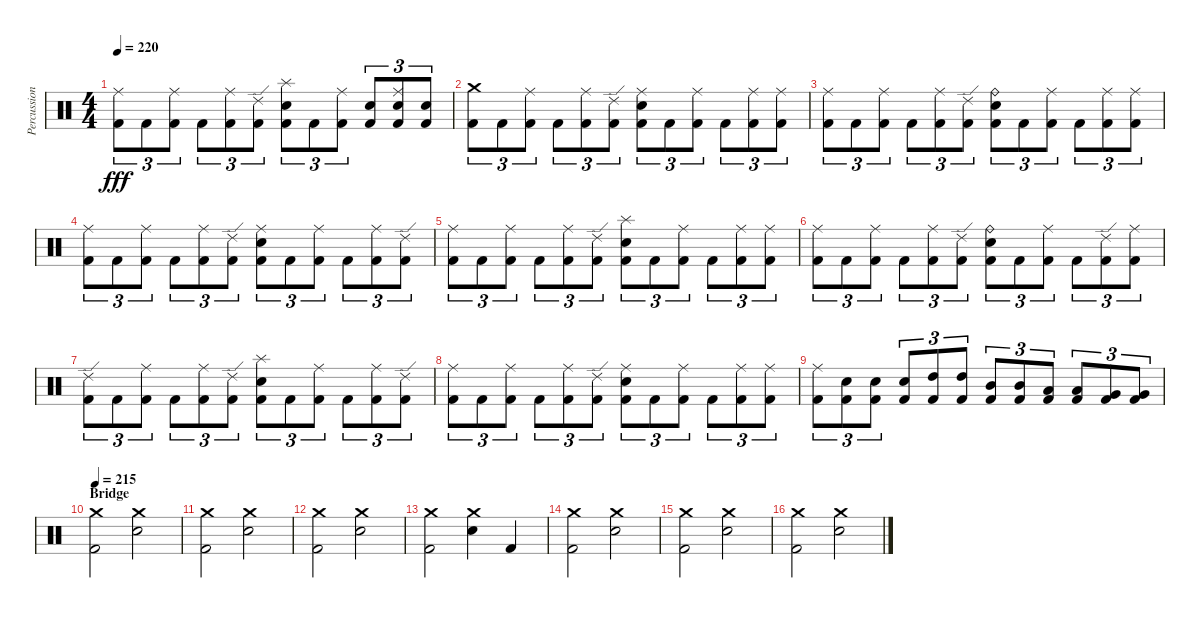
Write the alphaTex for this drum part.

\track ("Percussion" "Percussion") {instrument percussion}
\staff {score}
\articulation defaults
\ts (4 4)
\tempo 220
\clef neutral
\ks c
("Kick (hit) 2" "Ride (middle)").8{tu (3 2) dy fff} "Kick (hit) 2".8{tu (3 2)} ("Kick (hit) 2" "Ride (middle)").8{tu (3 2)} "Kick (hit) 2".8{tu (3 2)} ("Kick (hit) 2" "Ride (middle)").8{tu (3 2)} ("Kick (hit) 2" "Ride (edge) 2").8{tu (3 2)} ("Kick (hit) 2" "Electric Snare (hit)" "Splash (hit)").8{tu (3 2)} "Kick (hit) 2".8{tu (3 2)} ("Kick (hit) 2" "Ride (middle)").8{tu (3 2)} ("Kick (hit) 2" "Electric Snare (hit)").8{tu (3 2)} ("Kick (hit) 2" "Electric Snare (hit)" "Ride (middle)").8{tu (3 2)} ("Kick (hit) 2" "Electric Snare (hit)").8{tu (3 2)} |
("Kick (hit) 2" "Crash medium (hit)").8{tu (3 2)} "Kick (hit) 2".8{tu (3 2)} ("Kick (hit) 2" "Ride (middle)").8{tu (3 2)} "Kick (hit) 2".8{tu (3 2)} ("Kick (hit) 2" "Ride (middle)").8{tu (3 2)} ("Kick (hit) 2" "Ride (edge) 2").8{tu (3 2)} ("Kick (hit) 2" "Electric Snare (hit)" "Ride (middle)").8{tu (3 2)} "Kick (hit) 2".8{tu (3 2)} ("Kick (hit) 2" "Ride (middle)").8{tu (3 2)} "Kick (hit) 2".8{tu (3 2)} ("Kick (hit) 2" "Ride (middle)").8{tu (3 2)} ("Kick (hit) 2" "Ride (middle)").8{tu (3 2)} |
("Kick (hit) 2" "Ride (middle)").8{tu (3 2)} "Kick (hit) 2".8{tu (3 2)} ("Kick (hit) 2" "Ride (middle)").8{tu (3 2)} "Kick (hit) 2".8{tu (3 2)} ("Kick (hit) 2" "Ride (middle)").8{tu (3 2)} ("Kick (hit) 2" "Ride (edge) 2").8{tu (3 2)} ("Kick (hit) 2" "Electric Snare (hit)" "Ride (bell)").8{tu (3 2)} "Kick (hit) 2".8{tu (3 2)} ("Kick (hit) 2" "Ride (middle)").8{tu (3 2)} "Kick (hit) 2".8{tu (3 2)} ("Kick (hit) 2" "Ride (middle)").8{tu (3 2)} ("Kick (hit) 2" "Ride (middle)").8{tu (3 2)} |
("Kick (hit) 2" "Ride (middle)").8{tu (3 2)} "Kick (hit) 2".8{tu (3 2)} ("Kick (hit) 2" "Ride (middle)").8{tu (3 2)} "Kick (hit) 2".8{tu (3 2)} ("Kick (hit) 2" "Ride (middle)").8{tu (3 2)} ("Kick (hit) 2" "Ride (edge) 2").8{tu (3 2)} ("Kick (hit) 2" "Electric Snare (hit)" "Ride (middle)").8{tu (3 2)} "Kick (hit) 2".8{tu (3 2)} ("Kick (hit) 2" "Ride (middle)").8{tu (3 2)} "Kick (hit) 2".8{tu (3 2)} ("Kick (hit) 2" "Ride (middle)").8{tu (3 2)} ("Kick (hit) 2" "Ride (edge) 2").8{tu (3 2)} |
("Kick (hit) 2" "Ride (middle)").8{tu (3 2)} "Kick (hit) 2".8{tu (3 2)} ("Kick (hit) 2" "Ride (middle)").8{tu (3 2)} "Kick (hit) 2".8{tu (3 2)} ("Kick (hit) 2" "Ride (middle)").8{tu (3 2)} ("Kick (hit) 2" "Ride (edge) 2").8{tu (3 2)} ("Kick (hit) 2" "Electric Snare (hit)" "Splash (hit)").8{tu (3 2)} "Kick (hit) 2".8{tu (3 2)} ("Kick (hit) 2" "Ride (middle)").8{tu (3 2)} "Kick (hit) 2".8{tu (3 2)} ("Kick (hit) 2" "Ride (middle)").8{tu (3 2)} ("Kick (hit) 2" "Ride (middle)").8{tu (3 2)} |
("Kick (hit) 2" "Ride (middle)").8{tu (3 2)} "Kick (hit) 2".8{tu (3 2)} ("Kick (hit) 2" "Ride (middle)").8{tu (3 2)} "Kick (hit) 2".8{tu (3 2)} ("Kick (hit) 2" "Ride (middle)").8{tu (3 2)} ("Kick (hit) 2" "Ride (edge) 2").8{tu (3 2)} ("Kick (hit) 2" "Electric Snare (hit)" "Ride (bell)").8{tu (3 2)} "Kick (hit) 2".8{tu (3 2)} ("Kick (hit) 2" "Ride (middle)").8{tu (3 2)} "Kick (hit) 2".8{tu (3 2)} ("Kick (hit) 2" "Ride (edge) 2").8{tu (3 2)} ("Kick (hit) 2" "Ride (middle)").8{tu (3 2)} |
("Kick (hit) 2" "Ride (edge) 2").8{tu (3 2)} "Kick (hit) 2".8{tu (3 2)} ("Kick (hit) 2" "Ride (middle)").8{tu (3 2)} "Kick (hit) 2".8{tu (3 2)} ("Kick (hit) 2" "Ride (middle)").8{tu (3 2)} ("Kick (hit) 2" "Ride (edge) 2").8{tu (3 2)} ("Kick (hit) 2" "Electric Snare (hit)" "Splash (hit)").8{tu (3 2)} "Kick (hit) 2".8{tu (3 2)} ("Kick (hit) 2" "Ride (middle)").8{tu (3 2)} "Kick (hit) 2".8{tu (3 2)} ("Kick (hit) 2" "Ride (middle)").8{tu (3 2)} ("Kick (hit) 2" "Ride (edge) 2").8{tu (3 2)} |
("Kick (hit) 2" "Ride (middle)").8{tu (3 2)} "Kick (hit) 2".8{tu (3 2)} ("Kick (hit) 2" "Ride (middle)").8{tu (3 2)} "Kick (hit) 2".8{tu (3 2)} ("Kick (hit) 2" "Ride (middle)").8{tu (3 2)} ("Kick (hit) 2" "Ride (edge) 2").8{tu (3 2)} ("Kick (hit) 2" "Electric Snare (hit)" "Ride (middle)").8{tu (3 2)} "Kick (hit) 2".8{tu (3 2)} ("Kick (hit) 2" "Ride (middle)").8{tu (3 2)} "Kick (hit) 2".8{tu (3 2)} ("Kick (hit) 2" "Ride (middle)").8{tu (3 2)} ("Kick (hit) 2" "Ride (middle)").8{tu (3 2)} |
("Kick (hit) 2" "Ride (middle)").8{tu (3 2)} ("Kick (hit) 2" "Electric Snare (hit)").8{tu (3 2)} ("Kick (hit) 2" "Electric Snare (hit)").8{tu (3 2)} ("Kick (hit) 2" "Electric Snare (hit)").8{tu (3 2)} ("Kick (hit) 2" "High Tom (hit)").8{tu (3 2)} ("Kick (hit) 2" "High Tom (hit)").8{tu (3 2)} ("Kick (hit) 2" "Mid Tom (hit)").8{tu (3 2)} ("Kick (hit) 2" "Mid Tom (hit)").8{tu (3 2)} ("Kick (hit) 2" "Low Tom (hit)").8{tu (3 2)} ("Kick (hit) 2" "Low Tom (hit)").8{tu (3 2)} ("Kick (hit) 2" "Very Low Tom (hit)").8{tu (3 2)} ("Kick (hit) 2" "Very Low Tom (hit)").8{tu (3 2)} |
\section ("" "Bridge")
\tempo 215
("Kick (hit) 2" "Crash medium (hit)").2 ("Electric Snare (hit)" "Crash medium (hit)").2 |
("Kick (hit) 2" "Crash medium (hit)").2 ("Electric Snare (hit)" "Crash medium (hit)").2 |
("Kick (hit) 2" "Crash medium (hit)").2 ("Electric Snare (hit)" "Crash medium (hit)").2 |
("Kick (hit) 2" "Crash medium (hit)").2 ("Electric Snare (hit)" "Crash medium (hit)").4 "Kick (hit) 2".4 |
("Kick (hit) 2" "Crash medium (hit)").2 ("Electric Snare (hit)" "Crash medium (hit)").2 |
("Kick (hit) 2" "Crash medium (hit)").2 ("Electric Snare (hit)" "Crash medium (hit)").2 |
("Kick (hit) 2" "Crash medium (hit)").2 ("Electric Snare (hit)" "Crash medium (hit)").2
